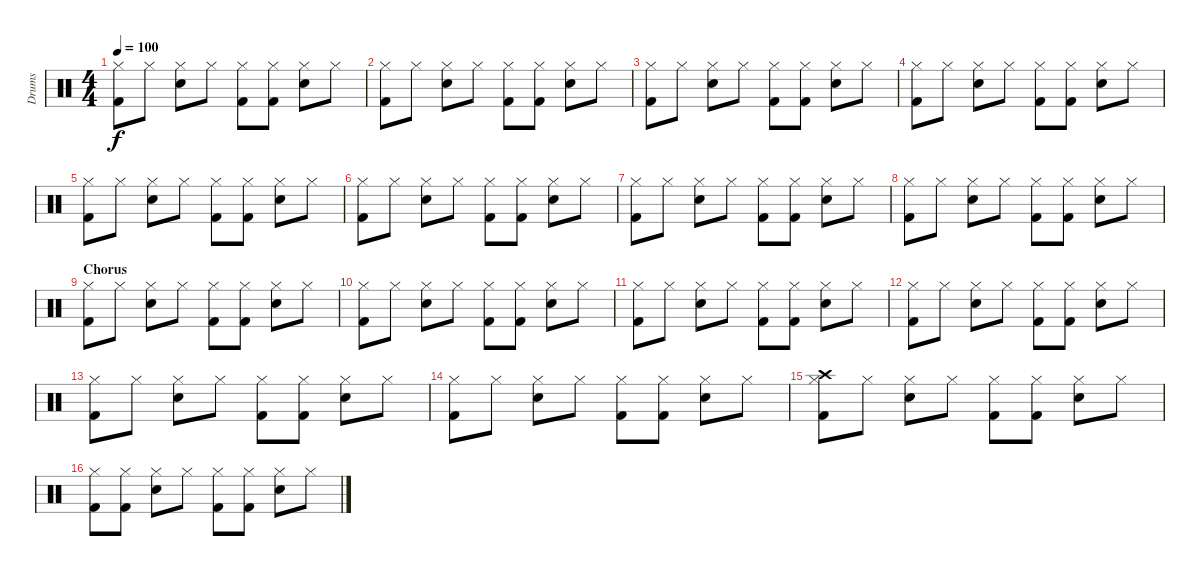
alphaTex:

\track ("Drums" "Drums") {instrument percussion}
\staff {score}
\articulation defaults
\ts (4 4)
\tempo 100
\clef neutral
\ks c
("Hi-Hat (closed)" "Kick (hit) 2").8{dy f} "Hi-Hat (closed)".8 ("Hi-Hat (closed)" "Snare (hit) 2").8 "Hi-Hat (closed)".8 ("Hi-Hat (closed)" "Kick (hit) 2").8 ("Hi-Hat (closed)" "Kick (hit) 2").8 ("Hi-Hat (closed)" "Snare (hit) 2").8 "Hi-Hat (closed)".8 |
("Hi-Hat (closed)" "Kick (hit) 2").8 "Hi-Hat (closed)".8 ("Hi-Hat (closed)" "Snare (hit) 2").8 "Hi-Hat (closed)".8 ("Hi-Hat (closed)" "Kick (hit) 2").8 ("Hi-Hat (closed)" "Kick (hit) 2").8 ("Hi-Hat (closed)" "Snare (hit) 2").8 "Hi-Hat (closed)".8 |
("Hi-Hat (closed)" "Kick (hit) 2").8 "Hi-Hat (closed)".8 ("Hi-Hat (closed)" "Snare (hit) 2").8 "Hi-Hat (closed)".8 ("Hi-Hat (closed)" "Kick (hit) 2").8 ("Hi-Hat (closed)" "Kick (hit) 2").8 ("Hi-Hat (closed)" "Snare (hit) 2").8 "Hi-Hat (closed)".8 |
("Hi-Hat (closed)" "Kick (hit) 2").8 "Hi-Hat (closed)".8 ("Hi-Hat (closed)" "Snare (hit) 2").8 "Hi-Hat (closed)".8 ("Hi-Hat (closed)" "Kick (hit) 2").8 ("Hi-Hat (closed)" "Kick (hit) 2").8 ("Hi-Hat (closed)" "Snare (hit) 2").8 "Hi-Hat (closed)".8 |
("Hi-Hat (closed)" "Kick (hit) 2").8 "Hi-Hat (closed)".8 ("Hi-Hat (closed)" "Snare (hit) 2").8 "Hi-Hat (closed)".8 ("Hi-Hat (closed)" "Kick (hit) 2").8 ("Hi-Hat (closed)" "Kick (hit) 2").8 ("Hi-Hat (closed)" "Snare (hit) 2").8 "Hi-Hat (closed)".8 |
("Hi-Hat (closed)" "Kick (hit) 2").8 "Hi-Hat (closed)".8 ("Hi-Hat (closed)" "Snare (hit) 2").8 "Hi-Hat (closed)".8 ("Hi-Hat (closed)" "Kick (hit) 2").8 ("Hi-Hat (closed)" "Kick (hit) 2").8 ("Hi-Hat (closed)" "Snare (hit) 2").8 "Hi-Hat (closed)".8 |
("Hi-Hat (closed)" "Kick (hit) 2").8 "Hi-Hat (closed)".8 ("Hi-Hat (closed)" "Snare (hit) 2").8 "Hi-Hat (closed)".8 ("Hi-Hat (closed)" "Kick (hit) 2").8 ("Hi-Hat (closed)" "Kick (hit) 2").8 ("Hi-Hat (closed)" "Snare (hit) 2").8 "Hi-Hat (closed)".8 |
("Hi-Hat (closed)" "Kick (hit) 2").8 "Hi-Hat (closed)".8 ("Hi-Hat (closed)" "Snare (hit) 2").8 "Hi-Hat (closed)".8 ("Hi-Hat (closed)" "Kick (hit) 2").8 ("Hi-Hat (closed)" "Kick (hit) 2").8 ("Hi-Hat (closed)" "Snare (hit) 2").8 "Hi-Hat (closed)".8 |
\section ("" "Chorus")
("Hi-Hat (closed)" "Kick (hit) 2").8 "Hi-Hat (closed)".8 ("Hi-Hat (closed)" "Snare (hit) 2").8 "Hi-Hat (closed)".8 ("Hi-Hat (closed)" "Kick (hit) 2").8 ("Hi-Hat (closed)" "Kick (hit) 2").8 ("Hi-Hat (closed)" "Snare (hit) 2").8 "Hi-Hat (closed)".8 |
("Hi-Hat (closed)" "Kick (hit) 2").8 "Hi-Hat (closed)".8 ("Hi-Hat (closed)" "Snare (hit) 2").8 "Hi-Hat (closed)".8 ("Hi-Hat (closed)" "Kick (hit) 2").8 ("Hi-Hat (closed)" "Kick (hit) 2").8 ("Hi-Hat (closed)" "Snare (hit) 2").8 "Hi-Hat (closed)".8 |
("Hi-Hat (closed)" "Kick (hit) 2").8 "Hi-Hat (closed)".8 ("Hi-Hat (closed)" "Snare (hit) 2").8 "Hi-Hat (closed)".8 ("Hi-Hat (closed)" "Kick (hit) 2").8 ("Hi-Hat (closed)" "Kick (hit) 2").8 ("Hi-Hat (closed)" "Snare (hit) 2").8 "Hi-Hat (closed)".8 |
("Hi-Hat (closed)" "Kick (hit) 2").8 "Hi-Hat (closed)".8 ("Hi-Hat (closed)" "Snare (hit) 2").8 "Hi-Hat (closed)".8 ("Hi-Hat (closed)" "Kick (hit) 2").8 ("Hi-Hat (closed)" "Kick (hit) 2").8 ("Hi-Hat (closed)" "Snare (hit) 2").8 "Hi-Hat (closed)".8 |
("Hi-Hat (closed)" "Kick (hit) 2").8 "Hi-Hat (closed)".8 ("Hi-Hat (closed)" "Snare (hit) 2").8 "Hi-Hat (closed)".8 ("Hi-Hat (closed)" "Kick (hit) 2").8 ("Hi-Hat (closed)" "Kick (hit) 2").8 ("Hi-Hat (closed)" "Snare (hit) 2").8 "Hi-Hat (closed)".8 |
("Hi-Hat (closed)" "Kick (hit) 2").8 "Hi-Hat (closed)".8 ("Hi-Hat (closed)" "Snare (hit) 2").8 "Hi-Hat (closed)".8 ("Hi-Hat (closed)" "Kick (hit) 2").8 ("Hi-Hat (closed)" "Kick (hit) 2").8 ("Hi-Hat (closed)" "Snare (hit) 2").8 "Hi-Hat (closed)".8 |
("Hi-Hat (closed)" "Crash high (hit)" "Kick (hit) 2").8 "Hi-Hat (closed)".8 ("Hi-Hat (closed)" "Snare (hit) 2").8 "Hi-Hat (closed)".8 ("Hi-Hat (closed)" "Kick (hit) 2").8 ("Hi-Hat (closed)" "Kick (hit) 2").8 ("Hi-Hat (closed)" "Snare (hit) 2").8 "Hi-Hat (closed)".8 |
("Hi-Hat (closed)" "Kick (hit) 2").8 ("Hi-Hat (closed)" "Kick (hit) 2").8 ("Hi-Hat (closed)" "Snare (hit) 2").8 "Hi-Hat (closed)".8 ("Hi-Hat (closed)" "Kick (hit) 2").8 ("Hi-Hat (closed)" "Kick (hit) 2").8 ("Hi-Hat (closed)" "Snare (hit) 2").8 "Hi-Hat (closed)".8
